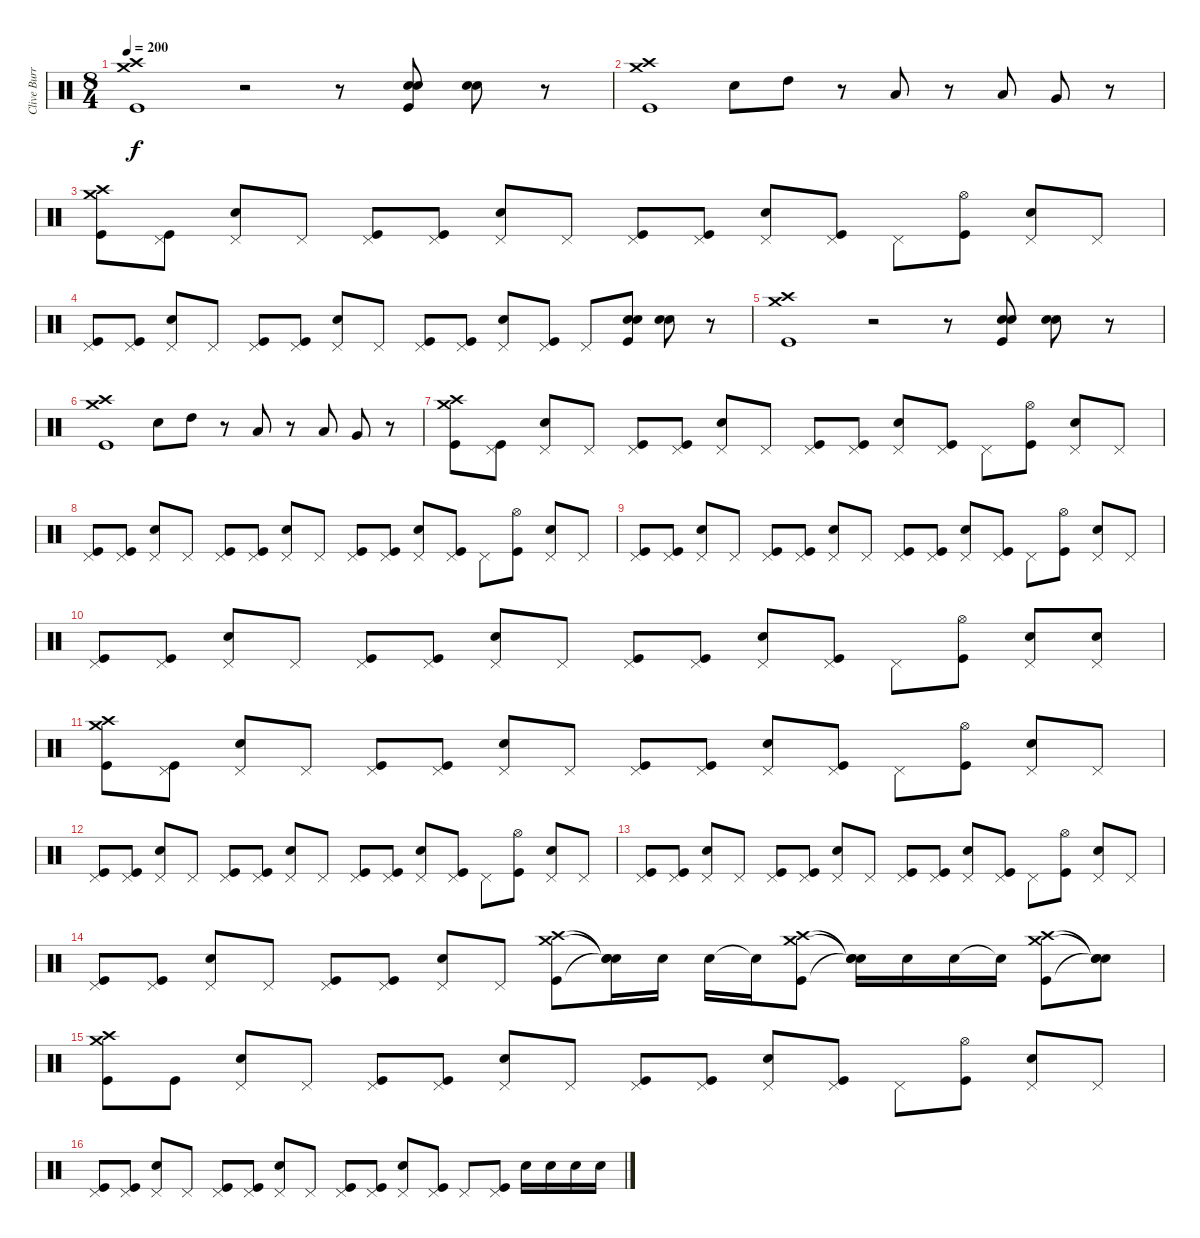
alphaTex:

\track ("Clive Burr" "Clive Burr") {instrument percussion}
\staff {score}
\articulation defaults
\ts (8 4)
\tempo 200
\clef neutral
\ks c
("Crash medium (hit)" "Crash high (hit)" "Kick (hit)").1{dy f} r.2 r.8 ("Snare (hit) 2" "Snare (hit) 2" "Kick (hit)").8 ("Snare (hit) 2" "Snare (hit) 2").8 r.8 |
("Crash medium (hit)" "Crash high (hit)" "Kick (hit)").1 "Snare (hit) 2".8 "High Tom (hit)".8 r.8 "Low Tom (hit)".8 r.8 "Low Tom (hit)".8 "Very Low Tom (hit)".8 r.8 |
("Crash medium (hit)" "Crash high (hit)" "Kick (hit)").8 ("Pedal Hi-Hat (hit)" "Kick (hit)").8 ("Pedal Hi-Hat (hit)" "Snare (hit) 2").8 "Pedal Hi-Hat (hit)".8 ("Pedal Hi-Hat (hit)" "Kick (hit)").8 ("Pedal Hi-Hat (hit)" "Kick (hit)").8 ("Pedal Hi-Hat (hit)" "Snare (hit) 2").8 "Pedal Hi-Hat (hit)".8 ("Pedal Hi-Hat (hit)" "Kick (hit)").8 ("Pedal Hi-Hat (hit)" "Kick (hit)").8 ("Pedal Hi-Hat (hit)" "Snare (hit) 2").8 ("Pedal Hi-Hat (hit)" "Kick (hit)").8 "Pedal Hi-Hat (hit)".8 ("Hi-Hat (open)" "Kick (hit)").8 ("Pedal Hi-Hat (hit)" "Snare (hit) 2").8 "Pedal Hi-Hat (hit)".8 |
("Pedal Hi-Hat (hit)" "Kick (hit)").8 ("Pedal Hi-Hat (hit)" "Kick (hit)").8 ("Pedal Hi-Hat (hit)" "Snare (hit) 2").8 "Pedal Hi-Hat (hit)".8 ("Pedal Hi-Hat (hit)" "Kick (hit)").8 ("Pedal Hi-Hat (hit)" "Kick (hit)").8 ("Pedal Hi-Hat (hit)" "Snare (hit) 2").8 "Pedal Hi-Hat (hit)".8 ("Pedal Hi-Hat (hit)" "Kick (hit)").8 ("Pedal Hi-Hat (hit)" "Kick (hit)").8 ("Pedal Hi-Hat (hit)" "Snare (hit) 2").8 ("Pedal Hi-Hat (hit)" "Kick (hit)").8 "Pedal Hi-Hat (hit)".8 ("Snare (hit) 2" "Snare (hit) 2" "Kick (hit)").8 ("Snare (hit) 2" "Snare (hit) 2").8 r.8 |
("Crash medium (hit)" "Crash high (hit)" "Kick (hit)").1 r.2 r.8 ("Snare (hit) 2" "Snare (hit) 2" "Kick (hit)").8 ("Snare (hit) 2" "Snare (hit) 2").8 r.8 |
("Crash medium (hit)" "Crash high (hit)" "Kick (hit)").1 "Snare (hit) 2".8 "High Tom (hit)".8 r.8 "Low Tom (hit)".8 r.8 "Low Tom (hit)".8 "Very Low Tom (hit)".8 r.8 |
("Crash medium (hit)" "Crash high (hit)" "Kick (hit)").8 ("Pedal Hi-Hat (hit)" "Kick (hit)").8 ("Pedal Hi-Hat (hit)" "Snare (hit) 2").8 "Pedal Hi-Hat (hit)".8 ("Pedal Hi-Hat (hit)" "Kick (hit)").8 ("Pedal Hi-Hat (hit)" "Kick (hit)").8 ("Pedal Hi-Hat (hit)" "Snare (hit) 2").8 "Pedal Hi-Hat (hit)".8 ("Pedal Hi-Hat (hit)" "Kick (hit)").8 ("Pedal Hi-Hat (hit)" "Kick (hit)").8 ("Pedal Hi-Hat (hit)" "Snare (hit) 2").8 ("Pedal Hi-Hat (hit)" "Kick (hit)").8 "Pedal Hi-Hat (hit)".8 ("Hi-Hat (open)" "Kick (hit)").8 ("Pedal Hi-Hat (hit)" "Snare (hit) 2").8 "Pedal Hi-Hat (hit)".8 |
("Pedal Hi-Hat (hit)" "Kick (hit)").8 ("Pedal Hi-Hat (hit)" "Kick (hit)").8 ("Pedal Hi-Hat (hit)" "Snare (hit) 2").8 "Pedal Hi-Hat (hit)".8 ("Pedal Hi-Hat (hit)" "Kick (hit)").8 ("Pedal Hi-Hat (hit)" "Kick (hit)").8 ("Pedal Hi-Hat (hit)" "Snare (hit) 2").8 "Pedal Hi-Hat (hit)".8 ("Pedal Hi-Hat (hit)" "Kick (hit)").8 ("Pedal Hi-Hat (hit)" "Kick (hit)").8 ("Pedal Hi-Hat (hit)" "Snare (hit) 2").8 ("Pedal Hi-Hat (hit)" "Kick (hit)").8 "Pedal Hi-Hat (hit)".8 ("Hi-Hat (open)" "Kick (hit)").8 ("Pedal Hi-Hat (hit)" "Snare (hit) 2").8 "Pedal Hi-Hat (hit)".8 |
("Pedal Hi-Hat (hit)" "Kick (hit)").8 ("Pedal Hi-Hat (hit)" "Kick (hit)").8 ("Pedal Hi-Hat (hit)" "Snare (hit) 2").8 "Pedal Hi-Hat (hit)".8 ("Pedal Hi-Hat (hit)" "Kick (hit)").8 ("Pedal Hi-Hat (hit)" "Kick (hit)").8 ("Pedal Hi-Hat (hit)" "Snare (hit) 2").8 "Pedal Hi-Hat (hit)".8 ("Pedal Hi-Hat (hit)" "Kick (hit)").8 ("Pedal Hi-Hat (hit)" "Kick (hit)").8 ("Pedal Hi-Hat (hit)" "Snare (hit) 2").8 ("Pedal Hi-Hat (hit)" "Kick (hit)").8 "Pedal Hi-Hat (hit)".8 ("Hi-Hat (open)" "Kick (hit)").8 ("Pedal Hi-Hat (hit)" "Snare (hit) 2").8 "Pedal Hi-Hat (hit)".8 |
("Pedal Hi-Hat (hit)" "Kick (hit)").8 ("Pedal Hi-Hat (hit)" "Kick (hit)").8 ("Pedal Hi-Hat (hit)" "Snare (hit) 2").8 "Pedal Hi-Hat (hit)".8 ("Pedal Hi-Hat (hit)" "Kick (hit)").8 ("Pedal Hi-Hat (hit)" "Kick (hit)").8 ("Pedal Hi-Hat (hit)" "Snare (hit) 2").8 "Pedal Hi-Hat (hit)".8 ("Pedal Hi-Hat (hit)" "Kick (hit)").8 ("Pedal Hi-Hat (hit)" "Kick (hit)").8 ("Pedal Hi-Hat (hit)" "Snare (hit) 2").8 ("Pedal Hi-Hat (hit)" "Kick (hit)").8 "Pedal Hi-Hat (hit)".8 ("Hi-Hat (open)" "Kick (hit)").8 ("Pedal Hi-Hat (hit)" "Snare (hit) 2").8 ("Pedal Hi-Hat (hit)" "Snare (hit) 2").8 |
("Crash medium (hit)" "Crash high (hit)" "Kick (hit)").8 ("Pedal Hi-Hat (hit)" "Kick (hit)").8 ("Pedal Hi-Hat (hit)" "Snare (hit) 2").8 "Pedal Hi-Hat (hit)".8 ("Pedal Hi-Hat (hit)" "Kick (hit)").8 ("Pedal Hi-Hat (hit)" "Kick (hit)").8 ("Pedal Hi-Hat (hit)" "Snare (hit) 2").8 "Pedal Hi-Hat (hit)".8 ("Pedal Hi-Hat (hit)" "Kick (hit)").8 ("Pedal Hi-Hat (hit)" "Kick (hit)").8 ("Pedal Hi-Hat (hit)" "Snare (hit) 2").8 ("Pedal Hi-Hat (hit)" "Kick (hit)").8 "Pedal Hi-Hat (hit)".8 ("Hi-Hat (open)" "Kick (hit)").8 ("Pedal Hi-Hat (hit)" "Snare (hit) 2").8 "Pedal Hi-Hat (hit)".8 |
("Pedal Hi-Hat (hit)" "Kick (hit)").8 ("Pedal Hi-Hat (hit)" "Kick (hit)").8 ("Pedal Hi-Hat (hit)" "Snare (hit) 2").8 "Pedal Hi-Hat (hit)".8 ("Pedal Hi-Hat (hit)" "Kick (hit)").8 ("Pedal Hi-Hat (hit)" "Kick (hit)").8 ("Pedal Hi-Hat (hit)" "Snare (hit) 2").8 "Pedal Hi-Hat (hit)".8 ("Pedal Hi-Hat (hit)" "Kick (hit)").8 ("Pedal Hi-Hat (hit)" "Kick (hit)").8 ("Pedal Hi-Hat (hit)" "Snare (hit) 2").8 ("Pedal Hi-Hat (hit)" "Kick (hit)").8 "Pedal Hi-Hat (hit)".8 ("Hi-Hat (open)" "Kick (hit)").8 ("Pedal Hi-Hat (hit)" "Snare (hit) 2").8 "Pedal Hi-Hat (hit)".8 |
("Pedal Hi-Hat (hit)" "Kick (hit)").8 ("Pedal Hi-Hat (hit)" "Kick (hit)").8 ("Pedal Hi-Hat (hit)" "Snare (hit) 2").8 "Pedal Hi-Hat (hit)".8 ("Pedal Hi-Hat (hit)" "Kick (hit)").8 ("Pedal Hi-Hat (hit)" "Kick (hit)").8 ("Pedal Hi-Hat (hit)" "Snare (hit) 2").8 "Pedal Hi-Hat (hit)".8 ("Pedal Hi-Hat (hit)" "Kick (hit)").8 ("Pedal Hi-Hat (hit)" "Kick (hit)").8 ("Pedal Hi-Hat (hit)" "Snare (hit) 2").8 ("Pedal Hi-Hat (hit)" "Kick (hit)").8 "Pedal Hi-Hat (hit)".8 ("Hi-Hat (open)" "Kick (hit)").8 ("Pedal Hi-Hat (hit)" "Snare (hit) 2").8 "Pedal Hi-Hat (hit)".8 |
("Pedal Hi-Hat (hit)" "Kick (hit)").8 ("Pedal Hi-Hat (hit)" "Kick (hit)").8 ("Pedal Hi-Hat (hit)" "Snare (hit) 2").8 "Pedal Hi-Hat (hit)".8 ("Pedal Hi-Hat (hit)" "Kick (hit)").8 ("Pedal Hi-Hat (hit)" "Kick (hit)").8 ("Pedal Hi-Hat (hit)" "Snare (hit) 2").8 "Pedal Hi-Hat (hit)".8 ("Crash medium (hit)" "Crash high (hit)" "Kick (hit)").8 ("Snare (hit)"{t} "Snare (hit)"{t} "Snare (hit)"{t}).16 "Snare (hit) 2".16 "Snare (hit) 2".16 "Snare (hit)"{t}.16 ("Crash medium (hit)" "Crash high (hit)" "Kick (hit)").8 ("Snare (hit)"{t} "Snare (hit)"{t} "Snare (hit)"{t}).16 "Snare (hit) 2".16 "Snare (hit) 2".16 "Snare (hit)"{t}.16 ("Crash medium (hit)" "Crash high (hit)" "Kick (hit)").8 ("Snare (hit)"{t} "Snare (hit)"{t} "Snare (hit)"{t}).8 |
("Crash medium (hit)" "Crash high (hit)" "Kick (hit)").8 "Kick (hit)".8 ("Pedal Hi-Hat (hit)" "Snare (hit) 2").8 "Pedal Hi-Hat (hit)".8 ("Pedal Hi-Hat (hit)" "Kick (hit)").8 ("Pedal Hi-Hat (hit)" "Kick (hit)").8 ("Pedal Hi-Hat (hit)" "Snare (hit) 2").8 "Pedal Hi-Hat (hit)".8 ("Pedal Hi-Hat (hit)" "Kick (hit)").8 ("Pedal Hi-Hat (hit)" "Kick (hit)").8 ("Pedal Hi-Hat (hit)" "Snare (hit) 2").8 ("Pedal Hi-Hat (hit)" "Kick (hit)").8 "Pedal Hi-Hat (hit)".8 ("Hi-Hat (open)" "Kick (hit)").8 ("Pedal Hi-Hat (hit)" "Snare (hit) 2").8 "Pedal Hi-Hat (hit)".8 |
("Pedal Hi-Hat (hit)" "Kick (hit)").8 ("Pedal Hi-Hat (hit)" "Kick (hit)").8 ("Pedal Hi-Hat (hit)" "Snare (hit) 2").8 "Pedal Hi-Hat (hit)".8 ("Pedal Hi-Hat (hit)" "Kick (hit)").8 ("Pedal Hi-Hat (hit)" "Kick (hit)").8 ("Pedal Hi-Hat (hit)" "Snare (hit) 2").8 "Pedal Hi-Hat (hit)".8 ("Pedal Hi-Hat (hit)" "Kick (hit)").8 ("Pedal Hi-Hat (hit)" "Kick (hit)").8 ("Pedal Hi-Hat (hit)" "Snare (hit) 2").8 ("Pedal Hi-Hat (hit)" "Kick (hit)").8 "Pedal Hi-Hat (hit)".8 ("Pedal Hi-Hat (hit)" "Kick (hit)").8 "Snare (hit) 2".16 "Snare (hit) 2".16 "Snare (hit) 2".16 "Snare (hit) 2".16
